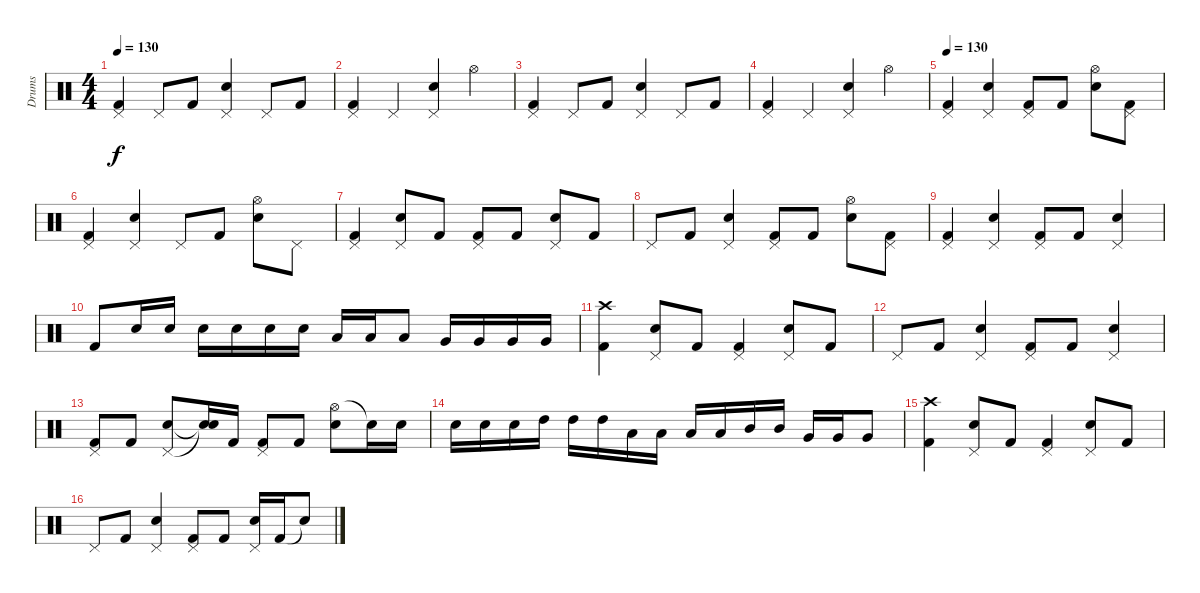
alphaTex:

\track ("Drums" "Drums") {instrument percussion}
\staff {score}
\articulation defaults
\ts (4 4)
\tempo 130
\clef neutral
\ks c
("Pedal Hi-Hat (hit)" "Kick (hit) 2").4{dy f} "Pedal Hi-Hat (hit)".8 "Kick (hit) 2".8 ("Pedal Hi-Hat (hit)" "Electric Snare (hit)").4 "Pedal Hi-Hat (hit)".8 "Kick (hit) 2".8 |
("Pedal Hi-Hat (hit)" "Kick (hit) 2").4 "Pedal Hi-Hat (hit)".4 ("Pedal Hi-Hat (hit)" "Electric Snare (hit)").4 "Hi-Hat (open)".4 |
("Pedal Hi-Hat (hit)" "Kick (hit) 2").4 "Pedal Hi-Hat (hit)".8 "Kick (hit) 2".8 ("Pedal Hi-Hat (hit)" "Electric Snare (hit)").4 "Pedal Hi-Hat (hit)".8 "Kick (hit) 2".8 |
("Pedal Hi-Hat (hit)" "Kick (hit) 2").4 "Pedal Hi-Hat (hit)".4 ("Pedal Hi-Hat (hit)" "Electric Snare (hit)").4 "Hi-Hat (open)".4 |
\tempo 130
("Pedal Hi-Hat (hit)" "Kick (hit) 2").4 ("Pedal Hi-Hat (hit)" "Electric Snare (hit)").4 ("Pedal Hi-Hat (hit)" "Kick (hit) 2").8 "Kick (hit) 2".8 ("Hi-Hat (open)" "Electric Snare (hit)").8 ("Pedal Hi-Hat (hit)" "Kick (hit) 2").8 |
("Pedal Hi-Hat (hit)" "Kick (hit) 2").4 ("Pedal Hi-Hat (hit)" "Electric Snare (hit)").4 "Pedal Hi-Hat (hit)".8 "Kick (hit) 2".8 ("Hi-Hat (open)" "Electric Snare (hit)").8 "Pedal Hi-Hat (hit)".8 |
("Pedal Hi-Hat (hit)" "Kick (hit) 2").4 ("Pedal Hi-Hat (hit)" "Electric Snare (hit)").8 "Kick (hit) 2".8 ("Pedal Hi-Hat (hit)" "Kick (hit) 2").8 "Kick (hit) 2".8 ("Pedal Hi-Hat (hit)" "Electric Snare (hit)").8 "Kick (hit) 2".8 |
"Pedal Hi-Hat (hit)".8 "Kick (hit) 2".8 ("Pedal Hi-Hat (hit)" "Electric Snare (hit)").4 ("Pedal Hi-Hat (hit)" "Kick (hit) 2").8 "Kick (hit) 2".8 ("Hi-Hat (open)" "Electric Snare (hit)").8 ("Pedal Hi-Hat (hit)" "Kick (hit) 2").8 |
("Pedal Hi-Hat (hit)" "Kick (hit) 2").4 ("Pedal Hi-Hat (hit)" "Electric Snare (hit)").4 ("Pedal Hi-Hat (hit)" "Kick (hit) 2").8 "Kick (hit) 2".8 ("Pedal Hi-Hat (hit)" "Electric Snare (hit)").4 |
"Kick (hit) 2".8 "Electric Snare (hit)".16 "Electric Snare (hit)".16 "Electric Snare (hit)".16 "Electric Snare (hit)".16 "Electric Snare (hit)".16 "Electric Snare (hit)".16 "Low Tom (hit)".16 "Low Tom (hit)".16 "Low Tom (hit)".8 "Very Low Tom (hit)".16 "Very Low Tom (hit)".16 "Very Low Tom (hit)".16 "Very Low Tom (hit)".16 |
("Crash high (hit)" "Kick (hit) 2").4 ("Pedal Hi-Hat (hit)" "Electric Snare (hit)").8 "Kick (hit) 2".8 ("Pedal Hi-Hat (hit)" "Kick (hit) 2").4 ("Pedal Hi-Hat (hit)" "Electric Snare (hit)").8 "Kick (hit) 2".8 |
"Pedal Hi-Hat (hit)".8 "Kick (hit) 2".8 ("Pedal Hi-Hat (hit)" "Electric Snare (hit)").4 ("Pedal Hi-Hat (hit)" "Kick (hit) 2").8 "Kick (hit) 2".8 ("Pedal Hi-Hat (hit)" "Electric Snare (hit)").4 |
("Pedal Hi-Hat (hit)" "Kick (hit) 2").8 "Kick (hit) 2".8 ("Pedal Hi-Hat (hit)" "Electric Snare (hit)").8 ("Snare (hit)"{t} "Snare (hit)"{t}).16 "Kick (hit) 2".16 ("Pedal Hi-Hat (hit)" "Kick (hit) 2").8 "Kick (hit) 2".8 ("Hi-Hat (open)" "Electric Snare (hit)").8 "Snare (hit)"{t}.16 "Electric Snare (hit)".16 |
"Electric Snare (hit)".16 "Electric Snare (hit)".16 "Electric Snare (hit)".16 "High Tom (hit)".16 "High Tom (hit)".16 "High Tom (hit)".16 "Low Tom (hit)".16 "Low Tom (hit)".16 "Low Tom (hit)".16 "Low Tom (hit)".16 "Mid Tom (hit)".16 "Mid Tom (hit)".16 "Very Low Tom (hit)".16 "Very Low Tom (hit)".16 "Very Low Tom (hit)".8 |
("Crash high (hit)" "Kick (hit) 2").4 ("Pedal Hi-Hat (hit)" "Electric Snare (hit)").8 "Kick (hit) 2".8 ("Pedal Hi-Hat (hit)" "Kick (hit) 2").4 ("Pedal Hi-Hat (hit)" "Electric Snare (hit)").8 "Kick (hit) 2".8 |
"Pedal Hi-Hat (hit)".8 "Kick (hit) 2".8 ("Pedal Hi-Hat (hit)" "Electric Snare (hit)").4 ("Pedal Hi-Hat (hit)" "Kick (hit) 2").8 "Kick (hit) 2".8 ("Pedal Hi-Hat (hit)" "Electric Snare (hit)").16 "Kick (hit) 2".16 "Snare (hit)"{t}.8
